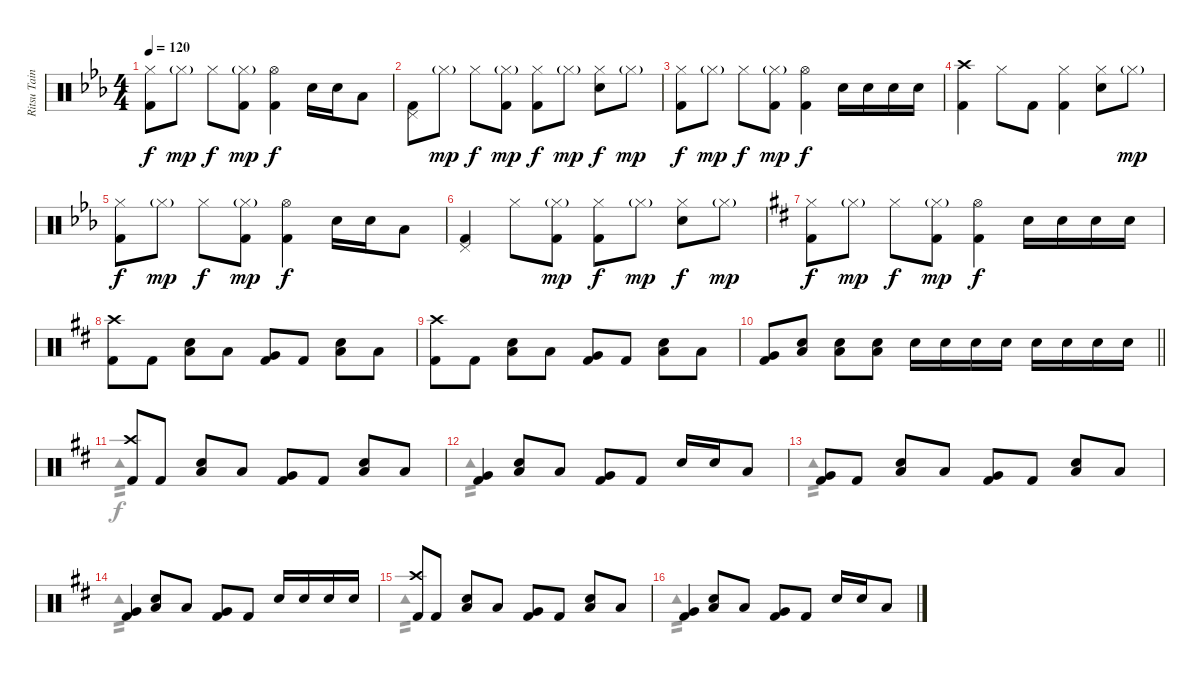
\track ("Ritsu Tainaka" "Ritsu Tain") {instrument percussion}
\staff {score}
\articulation defaults
\voice
\ts (4 4)
\tempo 120
\clef neutral
\ks eb
("Hi-Hat (closed)" "Kick (hit) 2").8{dy f} "Hi-Hat (closed)"{g}.8{dy mp} "Hi-Hat (closed)".8{dy f} ("Hi-Hat (closed)"{g} "Kick (hit) 2").8{dy mp} ("Hi-Hat (open)" "Kick (hit) 2").4{dy f} "Snare (hit) 2".16 "Snare (hit) 2".16 "Low Tom (hit)".8 |
("Pedal Hi-Hat (hit)" "Kick (hit) 2").8 "Hi-Hat (closed)"{g}.8{dy mp} "Hi-Hat (closed)".8{dy f} ("Hi-Hat (closed)"{g} "Kick (hit) 2").8{dy mp} ("Hi-Hat (closed)" "Kick (hit) 2").8{dy f} "Hi-Hat (closed)"{g}.8{dy mp} ("Hi-Hat (closed)" "Snare (hit) 2").8{dy f} "Hi-Hat (closed)"{g}.8{dy mp} |
("Hi-Hat (closed)" "Kick (hit) 2").8{dy f} "Hi-Hat (closed)"{g}.8{dy mp} "Hi-Hat (closed)".8{dy f} ("Hi-Hat (closed)"{g} "Kick (hit) 2").8{dy mp} ("Hi-Hat (open)" "Kick (hit) 2").4{dy f} "Snare (hit) 2".16 "Snare (hit) 2".16 "Snare (hit) 2".16 "Snare (hit) 2".16 |
("Crash high (hit)" "Kick (hit) 2").4 "Hi-Hat (closed)".8 "Kick (hit) 2".8 ("Hi-Hat (closed)" "Kick (hit) 2").4 ("Hi-Hat (closed)" "Snare (hit) 2").8 "Hi-Hat (closed)"{g}.8{dy mp} |
("Hi-Hat (closed)" "Kick (hit) 2").8{dy f} "Hi-Hat (closed)"{g}.8{dy mp} "Hi-Hat (closed)".8{dy f} ("Hi-Hat (closed)"{g} "Kick (hit) 2").8{dy mp} ("Hi-Hat (open)" "Kick (hit) 2").4{dy f} "Snare (hit) 2".16 "Snare (hit) 2".16 "Low Tom (hit)".8 |
("Pedal Hi-Hat (hit)" "Kick (hit) 2").4 "Hi-Hat (closed)".8 ("Hi-Hat (closed)"{g} "Kick (hit) 2").8{dy mp} ("Hi-Hat (closed)" "Kick (hit) 2").8{dy f} "Hi-Hat (closed)"{g}.8{dy mp} ("Hi-Hat (closed)" "Snare (hit) 2").8{dy f} "Hi-Hat (closed)"{g}.8{dy mp} |
\ks d
("Hi-Hat (closed)" "Kick (hit) 2").8{dy f} "Hi-Hat (closed)"{g}.8{dy mp} "Hi-Hat (closed)".8{dy f} ("Hi-Hat (closed)"{g} "Kick (hit) 2").8{dy mp} ("Hi-Hat (open)" "Kick (hit) 2").4{dy f} "Snare (hit) 2".16 "Snare (hit) 2".16 "Snare (hit) 2".16 "Snare (hit) 2".16 |
("Crash high (hit)" "Kick (hit) 2").8 "Kick (hit) 2".8 ("Snare (hit) 2" "Low Floor Tom (hit)").8 "Low Tom (hit)".8 ("Very Low Tom (hit)" "Kick (hit) 2").8 "Kick (hit) 2".8 ("Snare (hit) 2" "Low Floor Tom (hit)").8 "Low Tom (hit)".8 |
("Crash high (hit)" "Kick (hit) 2").8 "Kick (hit) 2".8 ("Snare (hit) 2" "Low Floor Tom (hit)").8 "Low Tom (hit)".8 ("Very Low Tom (hit)" "Kick (hit) 2").8 "Kick (hit) 2".8 ("Snare (hit) 2" "Low Floor Tom (hit)").8 "Low Tom (hit)".8 |
\barLineRight lightlight
("Very Low Tom (hit)" "Kick (hit) 2").8 ("Snare (hit) 2" "Low Floor Tom (hit)").8 ("Snare (hit) 2" "Low Floor Tom (hit)").8 ("Snare (hit) 2" "Low Floor Tom (hit)").8 "Snare (hit) 2".16 "Snare (hit) 2".16 "Snare (hit) 2".16 "Snare (hit) 2".16 "Snare (hit) 2".16 "Snare (hit) 2".16 "Snare (hit) 2".16 "Snare (hit) 2".16 |
("Crash high (hit)" "Kick (hit) 2").8 "Kick (hit) 2".8 ("Snare (hit) 2" "Low Floor Tom (hit)").8 "Low Tom (hit)".8 ("Very Low Tom (hit)" "Kick (hit) 2").8 "Kick (hit) 2".8 ("Snare (hit) 2" "Low Floor Tom (hit)").8 "Low Tom (hit)".8 |
("Very Low Tom (hit)" "Kick (hit) 2").4 ("Snare (hit) 2" "Low Floor Tom (hit)").8 "Low Tom (hit)".8 ("Very Low Tom (hit)" "Kick (hit) 2").8 "Kick (hit) 2".8 "Snare (hit) 2".16 "Snare (hit) 2".16 "Low Tom (hit)".8 |
("Very Low Tom (hit)" "Kick (hit) 2").8 "Kick (hit) 2".8 ("Snare (hit) 2" "Low Floor Tom (hit)").8 "Low Tom (hit)".8 ("Very Low Tom (hit)" "Kick (hit) 2").8 "Kick (hit) 2".8 ("Snare (hit) 2" "Low Floor Tom (hit)").8 "Low Tom (hit)".8 |
("Very Low Tom (hit)" "Kick (hit) 2").4 ("Snare (hit) 2" "Low Floor Tom (hit)").8 "Low Tom (hit)".8 ("Very Low Tom (hit)" "Kick (hit) 2").8 "Kick (hit) 2".8 "Snare (hit) 2".16 "Snare (hit) 2".16 "Snare (hit) 2".16 "Snare (hit) 2".16 |
("Crash high (hit)" "Kick (hit) 2").8 "Kick (hit) 2".8 ("Snare (hit) 2" "Low Floor Tom (hit)").8 "Low Tom (hit)".8 ("Very Low Tom (hit)" "Kick (hit) 2").8 "Kick (hit) 2".8 ("Snare (hit) 2" "Low Floor Tom (hit)").8 "Low Tom (hit)".8 |
("Very Low Tom (hit)" "Kick (hit) 2").4 ("Snare (hit) 2" "Low Floor Tom (hit)").8 "Low Tom (hit)".8 ("Very Low Tom (hit)" "Kick (hit) 2").8 "Kick (hit) 2".8 "Snare (hit) 2".16 "Snare (hit) 2".16 "Low Tom (hit)".8
\voice
\clef neutral
\ottava regular
\simile none
\ks eb
|
|
|
|
|
|
\ks d
|
|
|
\barLineRight lightlight
|
"Tambourine (hit)".1{tp 2} |
"Tambourine (hit)".1{tp 2} |
"Tambourine (hit)".1{tp 2} |
"Tambourine (hit)".1{tp 2} |
"Tambourine (hit)".1{tp 2} |
"Tambourine (hit)".1{tp 2}
